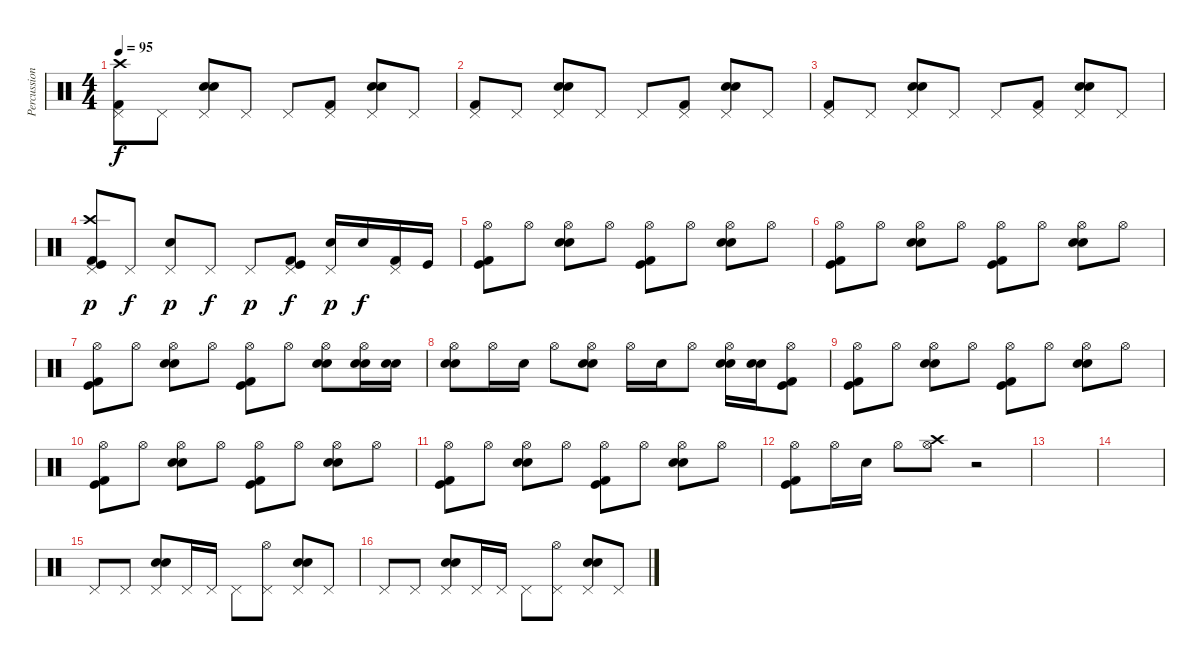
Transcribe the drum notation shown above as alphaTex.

\track ("Percussion (1)" "Percussion") {instrument percussion}
\staff {score}
\articulation defaults
\ts (4 4)
\tempo 95
\clef neutral
\ks c
("Pedal Hi-Hat (hit)" "Kick (hit) 2" "Crash high (hit)").8{dy f} "Pedal Hi-Hat (hit)".8 ("Pedal Hi-Hat (hit)" "Snare (hit) 2" "Electric Snare (hit)").8 "Pedal Hi-Hat (hit)".8 "Pedal Hi-Hat (hit)".8 ("Pedal Hi-Hat (hit)" "Kick (hit) 2").8 ("Pedal Hi-Hat (hit)" "Snare (hit) 2" "Electric Snare (hit)").8 "Pedal Hi-Hat (hit)".8 |
("Pedal Hi-Hat (hit)" "Kick (hit) 2").8 "Pedal Hi-Hat (hit)".8 ("Pedal Hi-Hat (hit)" "Snare (hit) 2" "Electric Snare (hit)").8 "Pedal Hi-Hat (hit)".8 "Pedal Hi-Hat (hit)".8 ("Pedal Hi-Hat (hit)" "Kick (hit) 2").8 ("Pedal Hi-Hat (hit)" "Snare (hit) 2" "Electric Snare (hit)").8 "Pedal Hi-Hat (hit)".8 |
("Pedal Hi-Hat (hit)" "Kick (hit) 2").8 "Pedal Hi-Hat (hit)".8 ("Pedal Hi-Hat (hit)" "Snare (hit) 2" "Electric Snare (hit)").8 "Pedal Hi-Hat (hit)".8 "Pedal Hi-Hat (hit)".8 ("Pedal Hi-Hat (hit)" "Kick (hit) 2").8 ("Pedal Hi-Hat (hit)" "Snare (hit) 2" "Electric Snare (hit)").8 "Pedal Hi-Hat (hit)".8 |
("Pedal Hi-Hat (hit)" "Crash high (hit)" "Kick (hit)" "Kick (hit) 2").8{dy p} "Pedal Hi-Hat (hit)".8{dy f} ("Pedal Hi-Hat (hit)" "Snare (hit) 2").8{dy p} "Pedal Hi-Hat (hit)".8{dy f} "Pedal Hi-Hat (hit)".8{dy p} ("Pedal Hi-Hat (hit)" "Kick (hit)" "Kick (hit) 2").8{dy f} ("Pedal Hi-Hat (hit)" "Snare (hit) 2").16{dy p} "Snare (hit) 2".16{dy f} ("Pedal Hi-Hat (hit)" "Kick (hit) 2").16 "Kick (hit)".16 |
("Hi-Hat (open)" "Kick (hit)" "Kick (hit) 2").8{volume 16} "Hi-Hat (open)".8 ("Hi-Hat (open)" "Snare (hit) 2" "Electric Snare (hit)").8 "Hi-Hat (open)".8 ("Hi-Hat (open)" "Kick (hit)" "Kick (hit) 2").8 "Hi-Hat (open)".8 ("Hi-Hat (open)" "Snare (hit) 2" "Electric Snare (hit)").8 "Hi-Hat (open)".8 |
("Hi-Hat (open)" "Kick (hit)" "Kick (hit) 2").8 "Hi-Hat (open)".8 ("Hi-Hat (open)" "Snare (hit) 2" "Electric Snare (hit)").8 "Hi-Hat (open)".8 ("Hi-Hat (open)" "Kick (hit)" "Kick (hit) 2").8 "Hi-Hat (open)".8 ("Hi-Hat (open)" "Snare (hit) 2" "Electric Snare (hit)").8 "Hi-Hat (open)".8 |
("Hi-Hat (open)" "Kick (hit)" "Kick (hit) 2").8 "Hi-Hat (open)".8 ("Hi-Hat (open)" "Snare (hit) 2" "Electric Snare (hit)").8 "Hi-Hat (open)".8 ("Hi-Hat (open)" "Kick (hit)" "Kick (hit) 2").8 "Hi-Hat (open)".8 ("Hi-Hat (open)" "Snare (hit) 2" "Electric Snare (hit)").8 ("Hi-Hat (open)" "Snare (hit) 2" "Electric Snare (hit)").16 ("Snare (hit) 2" "Electric Snare (hit)").16 |
("Hi-Hat (open)" "Snare (hit) 2" "Electric Snare (hit)").8 "Hi-Hat (open)".16 "Electric Snare (hit)".16 "Hi-Hat (open)".8 ("Hi-Hat (open)" "Snare (hit) 2" "Electric Snare (hit)").8 "Hi-Hat (open)".16 "Electric Snare (hit)".16 "Hi-Hat (open)".8 ("Hi-Hat (open)" "Snare (hit) 2" "Electric Snare (hit)").16 ("Snare (hit) 2" "Electric Snare (hit)").16 ("Hi-Hat (open)" "Kick (hit) 2" "Kick (hit)").8 |
("Hi-Hat (open)" "Kick (hit)" "Kick (hit) 2").8 "Hi-Hat (open)".8 ("Hi-Hat (open)" "Snare (hit) 2" "Electric Snare (hit)").8 "Hi-Hat (open)".8 ("Hi-Hat (open)" "Kick (hit)" "Kick (hit) 2").8 "Hi-Hat (open)".8 ("Hi-Hat (open)" "Snare (hit) 2" "Electric Snare (hit)").8 "Hi-Hat (open)".8 |
("Hi-Hat (open)" "Kick (hit)" "Kick (hit) 2").8 "Hi-Hat (open)".8 ("Hi-Hat (open)" "Snare (hit) 2" "Electric Snare (hit)").8 "Hi-Hat (open)".8 ("Hi-Hat (open)" "Kick (hit)" "Kick (hit) 2").8 "Hi-Hat (open)".8 ("Hi-Hat (open)" "Snare (hit) 2" "Electric Snare (hit)").8 "Hi-Hat (open)".8 |
("Hi-Hat (open)" "Kick (hit)" "Kick (hit) 2").8 "Hi-Hat (open)".8 ("Hi-Hat (open)" "Snare (hit) 2" "Electric Snare (hit)").8 "Hi-Hat (open)".8 ("Hi-Hat (open)" "Kick (hit)" "Kick (hit) 2").8 "Hi-Hat (open)".8 ("Hi-Hat (open)" "Snare (hit) 2" "Electric Snare (hit)").8 "Hi-Hat (open)".8 |
("Hi-Hat (open)" "Kick (hit) 2" "Kick (hit)").8 "Hi-Hat (open)".16 "Snare (hit) 2".16 "Hi-Hat (open)".8 ("Hi-Hat (open)" "Crash high (hit)").8 r.2 |
|
|
"Pedal Hi-Hat (hit)".8{volume 12} "Pedal Hi-Hat (hit)".8 ("Pedal Hi-Hat (hit)" "Snare (hit) 2" "Electric Snare (hit)").8 "Pedal Hi-Hat (hit)".16 "Pedal Hi-Hat (hit)".16 "Pedal Hi-Hat (hit)".8 ("Pedal Hi-Hat (hit)" "Hi-Hat (open)").8 ("Pedal Hi-Hat (hit)" "Snare (hit) 2" "Electric Snare (hit)").8 "Pedal Hi-Hat (hit)".8 |
"Pedal Hi-Hat (hit)".8 "Pedal Hi-Hat (hit)".8 ("Pedal Hi-Hat (hit)" "Snare (hit) 2" "Electric Snare (hit)").8 "Pedal Hi-Hat (hit)".16 "Pedal Hi-Hat (hit)".16 "Pedal Hi-Hat (hit)".8 ("Pedal Hi-Hat (hit)" "Hi-Hat (open)").8 ("Pedal Hi-Hat (hit)" "Snare (hit) 2" "Electric Snare (hit)").8 "Pedal Hi-Hat (hit)".8
